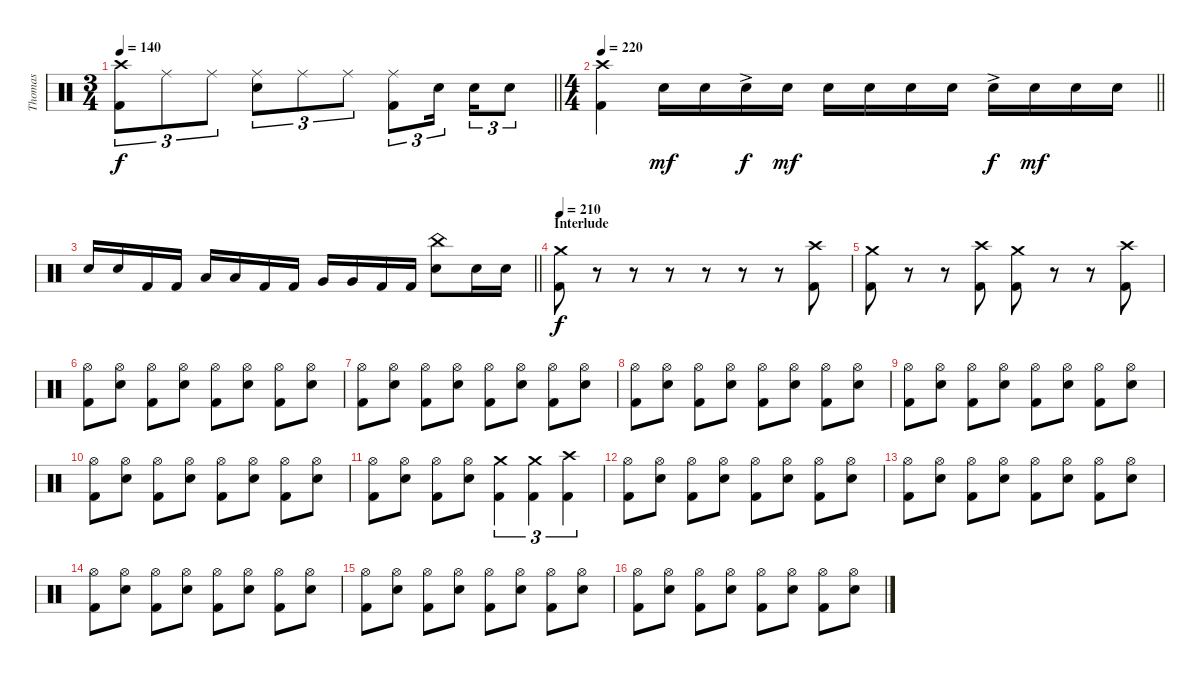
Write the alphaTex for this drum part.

\track ("Thomas" "Thomas") {instrument percussion}
\staff {score}
\articulation defaults
\ts (3 4)
\tempo 140
\clef neutral
\barLineRight lightlight
\ks c
("Crash high (hit)" "Kick (hit) 2").8{tu (3 2) dy f} "Ride (middle)".8{tu (3 2)} "Ride (middle)".8{tu (3 2)} ("Ride (middle)" "Snare (hit) 2").8{tu (3 2)} "Ride (middle)".8{tu (3 2)} "Ride (middle)".8{tu (3 2)} ("Ride (middle)" "Kick (hit) 2").8{tu (3 2)} "Snare (hit) 2".16{tu (3 2) beam splitsecondary} "Snare (hit) 2".16{tu (3 2)} "Snare (hit) 2".8{tu (3 2)} |
\ts (4 4)
\section ("" "")
\tempo 220
\barLineRight lightlight
("Crash high (hit)" "Kick (hit) 2").4 "Snare (hit) 2".16{dy mf} "Snare (hit) 2".16 "Snare (hit) 2"{ac}.16{dy f} "Snare (hit) 2".16{dy mf} "Snare (hit) 2".16 "Snare (hit) 2".16 "Snare (hit) 2".16 "Snare (hit) 2".16 "Snare (hit) 2"{ac}.16{dy f} "Snare (hit) 2".16{dy mf} "Snare (hit) 2".16 "Snare (hit) 2".16 |
\barLineRight lightlight "Snare (hit) 2".16 "Snare (hit) 2".16 "Kick (hit) 2".16 "Kick (hit) 2".16 "Low Tom (hit)".16 "Low Tom (hit)".16 "Kick (hit) 2".16 "Kick (hit) 2".16 "Very Low Tom (hit)".16 "Very Low Tom (hit)".16 "Kick (hit) 2".16 "Kick (hit) 2".16
("China (hit)" "Snare (hit) 2").8 "Snare (hit) 2".16 "Snare (hit) 2".16 |
\section ("" "Interlude ")
\tempo 210
("Crash medium (hit)" "Kick (hit) 2").8{dy f} r.8 r.8 r.8 r.8 r.8 r.8 ("Crash high (hit)" "Kick (hit) 2").8 |
("Crash medium (hit)" "Kick (hit) 2").8 r.8 r.8 ("Crash high (hit)" "Kick (hit) 2").8 ("Crash medium (hit)" "Kick (hit) 2").8 r.8 r.8 ("Crash high (hit)" "Kick (hit) 2").8 |
("Hi-Hat (open)" "Kick (hit) 2").8 ("Hi-Hat (open)" "Snare (hit) 2").8 ("Hi-Hat (open)" "Kick (hit) 2").8 ("Hi-Hat (open)" "Snare (hit) 2").8 ("Hi-Hat (open)" "Kick (hit) 2").8 ("Hi-Hat (open)" "Snare (hit) 2").8 ("Hi-Hat (open)" "Kick (hit) 2").8 ("Hi-Hat (open)" "Snare (hit) 2").8 |
("Hi-Hat (open)" "Kick (hit) 2").8 ("Hi-Hat (open)" "Snare (hit) 2").8 ("Hi-Hat (open)" "Kick (hit) 2").8 ("Hi-Hat (open)" "Snare (hit) 2").8 ("Hi-Hat (open)" "Kick (hit) 2").8 ("Hi-Hat (open)" "Snare (hit) 2").8 ("Hi-Hat (open)" "Kick (hit) 2").8 ("Hi-Hat (open)" "Snare (hit) 2").8 |
("Hi-Hat (open)" "Kick (hit) 2").8 ("Hi-Hat (open)" "Snare (hit) 2").8 ("Hi-Hat (open)" "Kick (hit) 2").8 ("Hi-Hat (open)" "Snare (hit) 2").8 ("Hi-Hat (open)" "Kick (hit) 2").8 ("Hi-Hat (open)" "Snare (hit) 2").8 ("Hi-Hat (open)" "Kick (hit) 2").8 ("Hi-Hat (open)" "Snare (hit) 2").8 |
("Hi-Hat (open)" "Kick (hit) 2").8 ("Hi-Hat (open)" "Snare (hit) 2").8 ("Hi-Hat (open)" "Kick (hit) 2").8 ("Hi-Hat (open)" "Snare (hit) 2").8 ("Hi-Hat (open)" "Kick (hit) 2").8 ("Hi-Hat (open)" "Snare (hit) 2").8 ("Hi-Hat (open)" "Kick (hit) 2").8 ("Hi-Hat (open)" "Snare (hit) 2").8 |
("Hi-Hat (open)" "Kick (hit) 2").8 ("Hi-Hat (open)" "Snare (hit) 2").8 ("Hi-Hat (open)" "Kick (hit) 2").8 ("Hi-Hat (open)" "Snare (hit) 2").8 ("Hi-Hat (open)" "Kick (hit) 2").8 ("Hi-Hat (open)" "Snare (hit) 2").8 ("Hi-Hat (open)" "Kick (hit) 2").8 ("Hi-Hat (open)" "Snare (hit) 2").8 |
("Hi-Hat (open)" "Kick (hit) 2").8 ("Hi-Hat (open)" "Snare (hit) 2").8 ("Hi-Hat (open)" "Kick (hit) 2").8 ("Hi-Hat (open)" "Snare (hit) 2").8 ("Crash medium (hit)" "Kick (hit) 2").4{tu (3 2)} ("Crash medium (hit)" "Kick (hit) 2").4{tu (3 2)} ("Crash high (hit)" "Kick (hit) 2").4{tu (3 2)} |
("Hi-Hat (open)" "Kick (hit) 2").8 ("Hi-Hat (open)" "Snare (hit) 2").8 ("Hi-Hat (open)" "Kick (hit) 2").8 ("Hi-Hat (open)" "Snare (hit) 2").8 ("Hi-Hat (open)" "Kick (hit) 2").8 ("Hi-Hat (open)" "Snare (hit) 2").8 ("Hi-Hat (open)" "Kick (hit) 2").8 ("Hi-Hat (open)" "Snare (hit) 2").8 |
("Hi-Hat (open)" "Kick (hit) 2").8 ("Hi-Hat (open)" "Snare (hit) 2").8 ("Hi-Hat (open)" "Kick (hit) 2").8 ("Hi-Hat (open)" "Snare (hit) 2").8 ("Hi-Hat (open)" "Kick (hit) 2").8 ("Hi-Hat (open)" "Snare (hit) 2").8 ("Hi-Hat (open)" "Kick (hit) 2").8 ("Hi-Hat (open)" "Snare (hit) 2").8 |
("Hi-Hat (open)" "Kick (hit) 2").8 ("Hi-Hat (open)" "Snare (hit) 2").8 ("Hi-Hat (open)" "Kick (hit) 2").8 ("Hi-Hat (open)" "Snare (hit) 2").8 ("Hi-Hat (open)" "Kick (hit) 2").8 ("Hi-Hat (open)" "Snare (hit) 2").8 ("Hi-Hat (open)" "Kick (hit) 2").8 ("Hi-Hat (open)" "Snare (hit) 2").8 |
("Hi-Hat (open)" "Kick (hit) 2").8 ("Hi-Hat (open)" "Snare (hit) 2").8 ("Hi-Hat (open)" "Kick (hit) 2").8 ("Hi-Hat (open)" "Snare (hit) 2").8 ("Hi-Hat (open)" "Kick (hit) 2").8 ("Hi-Hat (open)" "Snare (hit) 2").8 ("Hi-Hat (open)" "Kick (hit) 2").8 ("Hi-Hat (open)" "Snare (hit) 2").8 |
("Hi-Hat (open)" "Kick (hit) 2").8 ("Hi-Hat (open)" "Snare (hit) 2").8 ("Hi-Hat (open)" "Kick (hit) 2").8 ("Hi-Hat (open)" "Snare (hit) 2").8 ("Hi-Hat (open)" "Kick (hit) 2").8 ("Hi-Hat (open)" "Snare (hit) 2").8 ("Hi-Hat (open)" "Kick (hit) 2").8 ("Hi-Hat (open)" "Snare (hit) 2").8
